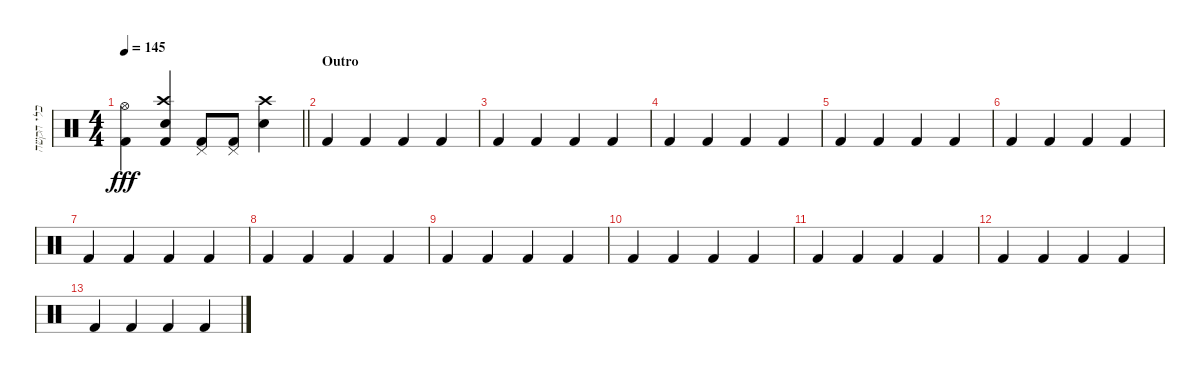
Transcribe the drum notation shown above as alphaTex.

\track ("כלי הקשה" "כלי הקשה") {instrument percussion bank 127}
\staff {score}
\articulation defaults
\ts (4 4)
\tempo 145
\clef neutral
\barLineRight lightlight
\ks c
("Hi-Hat (open)" "Kick (hit) 2").4{dy fff} ("Crash high (hit)" "Snare (hit) 2" "Kick (hit) 2").4 ("Pedal Hi-Hat (hit)" "Kick (hit) 2").8 ("Pedal Hi-Hat (hit)" "Kick (hit) 2").8 ("Crash high (hit)" "Snare (hit) 2").4 |
\section ("" "Outro")
"Kick (hit) 2".4{volume 12} "Kick (hit) 2".4 "Kick (hit) 2".4 "Kick (hit) 2".4 |
"Kick (hit) 2".4 "Kick (hit) 2".4 "Kick (hit) 2".4 "Kick (hit) 2".4 |
"Kick (hit) 2".4 "Kick (hit) 2".4 "Kick (hit) 2".4 "Kick (hit) 2".4 |
"Kick (hit) 2".4 "Kick (hit) 2".4 "Kick (hit) 2".4 "Kick (hit) 2".4 |
"Kick (hit) 2".4{volume 12} "Kick (hit) 2".4 "Kick (hit) 2".4 "Kick (hit) 2".4 |
"Kick (hit) 2".4 "Kick (hit) 2".4 "Kick (hit) 2".4 "Kick (hit) 2".4 |
"Kick (hit) 2".4 "Kick (hit) 2".4 "Kick (hit) 2".4 "Kick (hit) 2".4 |
"Kick (hit) 2".4 "Kick (hit) 2".4 "Kick (hit) 2".4 "Kick (hit) 2".4 |
"Kick (hit) 2".4{volume 12} "Kick (hit) 2".4 "Kick (hit) 2".4 "Kick (hit) 2".4 |
"Kick (hit) 2".4 "Kick (hit) 2".4 "Kick (hit) 2".4 "Kick (hit) 2".4 |
"Kick (hit) 2".4 "Kick (hit) 2".4 "Kick (hit) 2".4 "Kick (hit) 2".4 |
"Kick (hit) 2".4 "Kick (hit) 2".4 "Kick (hit) 2".4 "Kick (hit) 2".4
